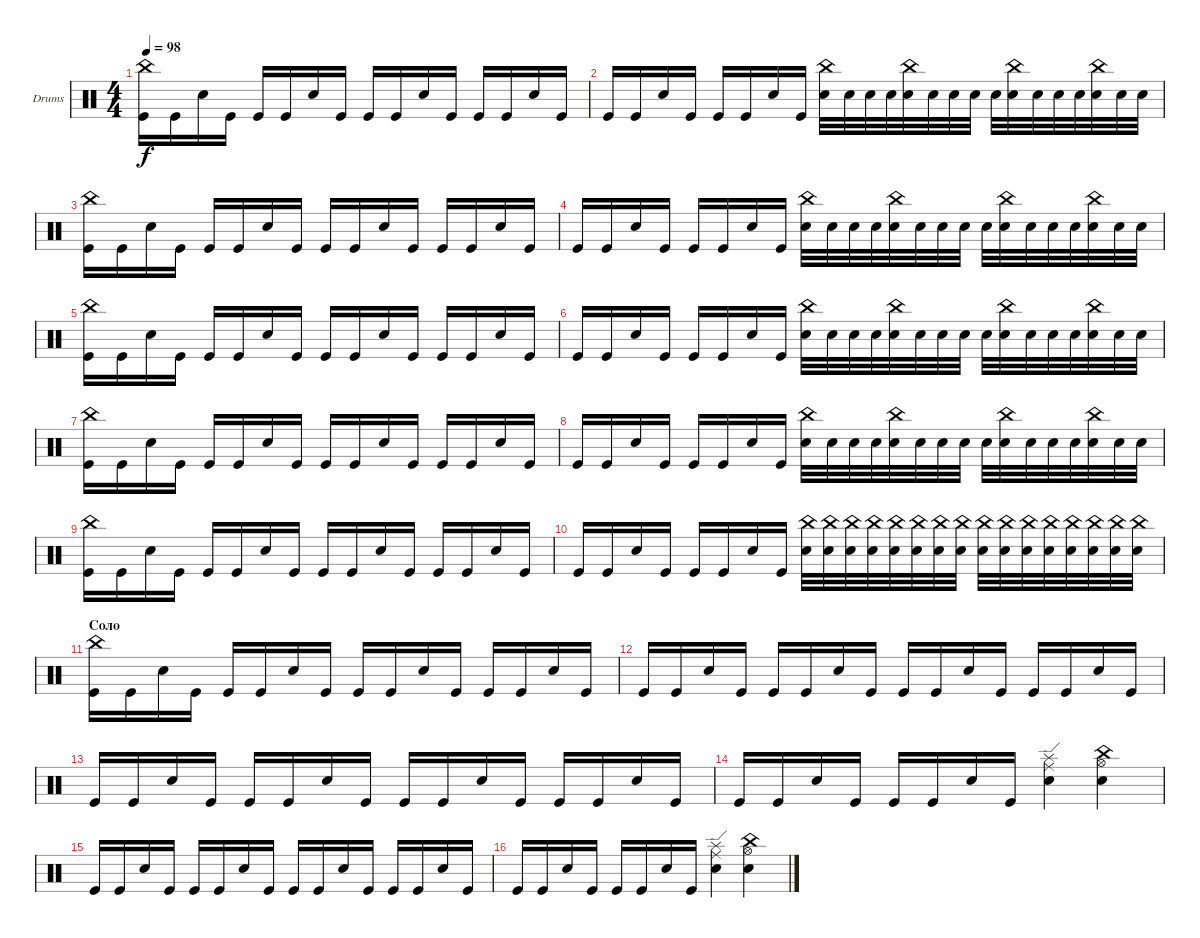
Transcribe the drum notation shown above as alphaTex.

\defaultSystemsLayout 4
\bracketExtendMode groupsimilarinstruments
\firstSystemTrackNameOrientation horizontal
\otherSystemsTrackNameOrientation horizontal
\track ("Drumkit" "Drums") {instrument percussion}
\staff {score}
\articulation defaults
\ts (4 4)
\tempo 98
\clef neutral
\ks c
("Kick (hit)" "China (hit)").16{dy f} "Kick (hit)".16 "Snare (hit) 2".16 "Kick (hit)".16 "Kick (hit)".16 "Kick (hit)".16 "Snare (hit) 2".16 "Kick (hit)".16 "Kick (hit)".16 "Kick (hit)".16 "Snare (hit) 2".16 "Kick (hit)".16 "Kick (hit)".16 "Kick (hit)".16 "Snare (hit) 2".16 "Kick (hit)".16 |
"Kick (hit)".16 "Kick (hit)".16 "Snare (hit) 2".16 "Kick (hit)".16 "Kick (hit)".16 "Kick (hit)".16 "Snare (hit) 2".16 "Kick (hit)".16 ("Snare (hit) 2" "China (hit)").32 "Snare (hit) 2".32 "Snare (hit) 2".32 "Snare (hit) 2".32 ("Snare (hit) 2" "China (hit)").32 "Snare (hit) 2".32 "Snare (hit) 2".32 "Snare (hit) 2".32 "Snare (hit) 2".32 ("Snare (hit) 2" "China (hit)").32 "Snare (hit) 2".32 "Snare (hit) 2".32 "Snare (hit) 2".32 ("Snare (hit) 2" "China (hit)").32 "Snare (hit) 2".32 "Snare (hit) 2".32 |
("Kick (hit)" "China (hit)").16 "Kick (hit)".16 "Snare (hit) 2".16 "Kick (hit)".16 "Kick (hit)".16 "Kick (hit)".16 "Snare (hit) 2".16 "Kick (hit)".16 "Kick (hit)".16 "Kick (hit)".16 "Snare (hit) 2".16 "Kick (hit)".16 "Kick (hit)".16 "Kick (hit)".16 "Snare (hit) 2".16 "Kick (hit)".16 |
"Kick (hit)".16 "Kick (hit)".16 "Snare (hit) 2".16 "Kick (hit)".16 "Kick (hit)".16 "Kick (hit)".16 "Snare (hit) 2".16 "Kick (hit)".16 ("Snare (hit) 2" "China (hit)").32 "Snare (hit) 2".32 "Snare (hit) 2".32 "Snare (hit) 2".32 ("Snare (hit) 2" "China (hit)").32 "Snare (hit) 2".32 "Snare (hit) 2".32 "Snare (hit) 2".32 "Snare (hit) 2".32 ("Snare (hit) 2" "China (hit)").32 "Snare (hit) 2".32 "Snare (hit) 2".32 "Snare (hit) 2".32 ("Snare (hit) 2" "China (hit)").32 "Snare (hit) 2".32 "Snare (hit) 2".32 |
("Kick (hit)" "China (hit)").16 "Kick (hit)".16 "Snare (hit) 2".16 "Kick (hit)".16 "Kick (hit)".16 "Kick (hit)".16 "Snare (hit) 2".16 "Kick (hit)".16 "Kick (hit)".16 "Kick (hit)".16 "Snare (hit) 2".16 "Kick (hit)".16 "Kick (hit)".16 "Kick (hit)".16 "Snare (hit) 2".16 "Kick (hit)".16 |
"Kick (hit)".16 "Kick (hit)".16 "Snare (hit) 2".16 "Kick (hit)".16 "Kick (hit)".16 "Kick (hit)".16 "Snare (hit) 2".16 "Kick (hit)".16 ("Snare (hit) 2" "China (hit)").32 "Snare (hit) 2".32 "Snare (hit) 2".32 "Snare (hit) 2".32 ("Snare (hit) 2" "China (hit)").32 "Snare (hit) 2".32 "Snare (hit) 2".32 "Snare (hit) 2".32 "Snare (hit) 2".32 ("Snare (hit) 2" "China (hit)").32 "Snare (hit) 2".32 "Snare (hit) 2".32 "Snare (hit) 2".32 ("Snare (hit) 2" "China (hit)").32 "Snare (hit) 2".32 "Snare (hit) 2".32 |
("Kick (hit)" "China (hit)").16 "Kick (hit)".16 "Snare (hit) 2".16 "Kick (hit)".16 "Kick (hit)".16 "Kick (hit)".16 "Snare (hit) 2".16 "Kick (hit)".16 "Kick (hit)".16 "Kick (hit)".16 "Snare (hit) 2".16 "Kick (hit)".16 "Kick (hit)".16 "Kick (hit)".16 "Snare (hit) 2".16 "Kick (hit)".16 |
"Kick (hit)".16 "Kick (hit)".16 "Snare (hit) 2".16 "Kick (hit)".16 "Kick (hit)".16 "Kick (hit)".16 "Snare (hit) 2".16 "Kick (hit)".16 ("Snare (hit) 2" "China (hit)").32 "Snare (hit) 2".32 "Snare (hit) 2".32 "Snare (hit) 2".32 ("Snare (hit) 2" "China (hit)").32 "Snare (hit) 2".32 "Snare (hit) 2".32 "Snare (hit) 2".32 "Snare (hit) 2".32 ("Snare (hit) 2" "China (hit)").32 "Snare (hit) 2".32 "Snare (hit) 2".32 "Snare (hit) 2".32 ("Snare (hit) 2" "China (hit)").32 "Snare (hit) 2".32 "Snare (hit) 2".32 |
("Kick (hit)" "China (hit)").16 "Kick (hit)".16 "Snare (hit) 2".16 "Kick (hit)".16 "Kick (hit)".16 "Kick (hit)".16 "Snare (hit) 2".16 "Kick (hit)".16 "Kick (hit)".16 "Kick (hit)".16 "Snare (hit) 2".16 "Kick (hit)".16 "Kick (hit)".16 "Kick (hit)".16 "Snare (hit) 2".16 "Kick (hit)".16 |
"Kick (hit)".16 "Kick (hit)".16 "Snare (hit) 2".16 "Kick (hit)".16 "Kick (hit)".16 "Kick (hit)".16 "Snare (hit) 2".16 "Kick (hit)".16 ("Snare (hit) 2" "China (hit)").32 ("Snare (hit) 2" "China (hit)").32 ("Snare (hit) 2" "China (hit)").32 ("Snare (hit) 2" "China (hit)").32 ("Snare (hit) 2" "China (hit)").32 ("Snare (hit) 2" "China (hit)").32 ("Snare (hit) 2" "China (hit)").32 ("Snare (hit) 2" "China (hit)").32 ("Snare (hit) 2" "China (hit)").32 ("Snare (hit) 2" "China (hit)").32 ("Snare (hit) 2" "China (hit)").32 ("Snare (hit) 2" "China (hit)").32 ("Snare (hit) 2" "China (hit)").32 ("Snare (hit) 2" "China (hit)").32 ("Snare (hit) 2" "China (hit)").32 ("Snare (hit) 2" "China (hit)").32 |
\section ("" "Соло")
("Kick (hit)" "China (hit)").16 "Kick (hit)".16 "Snare (hit) 2".16 "Kick (hit)".16 "Kick (hit)".16 "Kick (hit)".16 "Snare (hit) 2".16 "Kick (hit)".16 "Kick (hit)".16 "Kick (hit)".16 "Snare (hit) 2".16 "Kick (hit)".16 "Kick (hit)".16 "Kick (hit)".16 "Snare (hit) 2".16 "Kick (hit)".16 |
"Kick (hit)".16 "Kick (hit)".16 "Snare (hit) 2".16 "Kick (hit)".16 "Kick (hit)".16 "Kick (hit)".16 "Snare (hit) 2".16 "Kick (hit)".16 "Kick (hit)".16 "Kick (hit)".16 "Snare (hit) 2".16 "Kick (hit)".16 "Kick (hit)".16 "Kick (hit)".16 "Snare (hit) 2".16 "Kick (hit)".16 |
"Kick (hit)".16 "Kick (hit)".16 "Snare (hit) 2".16 "Kick (hit)".16 "Kick (hit)".16 "Kick (hit)".16 "Snare (hit) 2".16 "Kick (hit)".16 "Kick (hit)".16 "Kick (hit)".16 "Snare (hit) 2".16 "Kick (hit)".16 "Kick (hit)".16 "Kick (hit)".16 "Snare (hit) 2".16 "Kick (hit)".16 |
"Kick (hit)".16 "Kick (hit)".16 "Snare (hit) 2".16 "Kick (hit)".16 "Kick (hit)".16 "Kick (hit)".16 "Snare (hit) 2".16 "Kick (hit)".16 ("Snare (hit) 2" "Splash (hit)" "Ride (edge)").4 ("China (hit)" "Snare (hit) 2" "Hi-Hat (open)").4 |
"Kick (hit)".16 "Kick (hit)".16 "Snare (hit) 2".16 "Kick (hit)".16 "Kick (hit)".16 "Kick (hit)".16 "Snare (hit) 2".16 "Kick (hit)".16 "Kick (hit)".16 "Kick (hit)".16 "Snare (hit) 2".16 "Kick (hit)".16 "Kick (hit)".16 "Kick (hit)".16 "Snare (hit) 2".16 "Kick (hit)".16 |
"Kick (hit)".16 "Kick (hit)".16 "Snare (hit) 2".16 "Kick (hit)".16 "Kick (hit)".16 "Kick (hit)".16 "Snare (hit) 2".16 "Kick (hit)".16 ("Snare (hit) 2" "Splash (hit)" "Ride (edge)").4 ("China (hit)" "Snare (hit) 2" "Hi-Hat (open)").4
